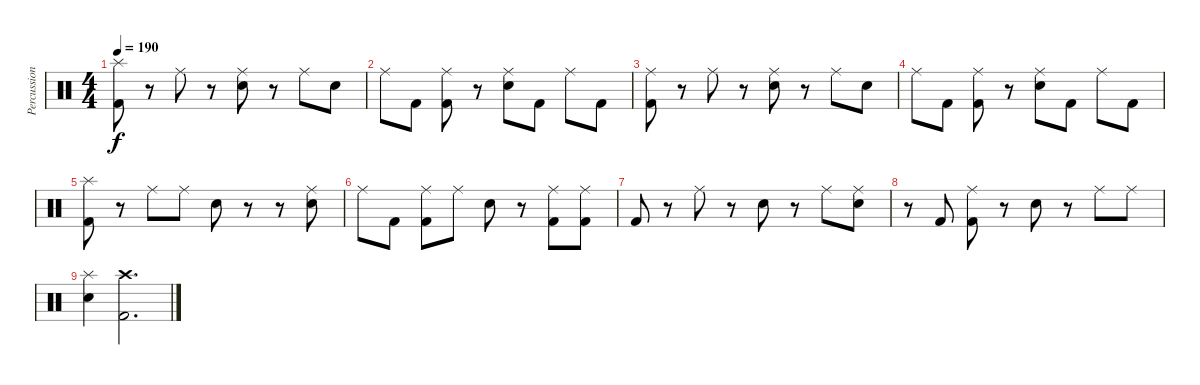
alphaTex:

\track ("Percussion" "Percussion") {instrument percussion}
\staff {score}
\articulation defaults
\ts (4 4)
\tempo 190
\clef neutral
\ks c
("Splash (hit)" "Kick (hit) 2").8{dy f} r.8 "Ride (middle)".8 r.8 ("Ride (middle)" "Electric Snare (hit)").8 r.8 "Ride (middle)".8 "Electric Snare (hit)".8 |
"Ride (middle)".8 "Kick (hit) 2".8 ("Ride (middle)" "Kick (hit) 2").8 r.8 ("Ride (middle)" "Electric Snare (hit)").8 "Kick (hit) 2".8 "Ride (middle)".8 "Kick (hit) 2".8 |
("Ride (middle)" "Kick (hit) 2").8 r.8 "Ride (middle)".8 r.8 ("Ride (middle)" "Electric Snare (hit)").8 r.8 "Ride (middle)".8 "Electric Snare (hit)".8 |
"Ride (middle)".8 "Kick (hit) 2".8 ("Ride (middle)" "Kick (hit) 2").8 r.8 ("Ride (middle)" "Electric Snare (hit)").8 "Kick (hit) 2".8 "Ride (middle)".8 "Kick (hit) 2".8 |
("Splash (hit)" "Kick (hit) 2").8 r.8 "Ride (middle)".8 "Ride (middle)".8 "Electric Snare (hit)".8 r.8 r.8 ("Ride (middle)" "Electric Snare (hit)").8 |
"Ride (middle)".8 "Kick (hit) 2".8 ("Ride (middle)" "Kick (hit) 2").8 "Ride (middle)".8 "Electric Snare (hit)".8 r.8 ("Ride (middle)" "Kick (hit) 2").8 ("Ride (middle)" "Kick (hit) 2").8 |
"Kick (hit) 2".8 r.8 "Ride (middle)".8 r.8 "Electric Snare (hit)".8 r.8 "Ride (middle)".8 ("Ride (middle)" "Electric Snare (hit)").8 |
r.8 "Kick (hit) 2".8 ("Ride (middle)" "Kick (hit) 2").8 r.8 "Electric Snare (hit)".8 r.8 "Ride (middle)".8 "Ride (middle)".8 |
("Splash (hit)" "Electric Snare (hit)").4 ("Crash high (hit)" "Kick (hit) 2").2{d}
